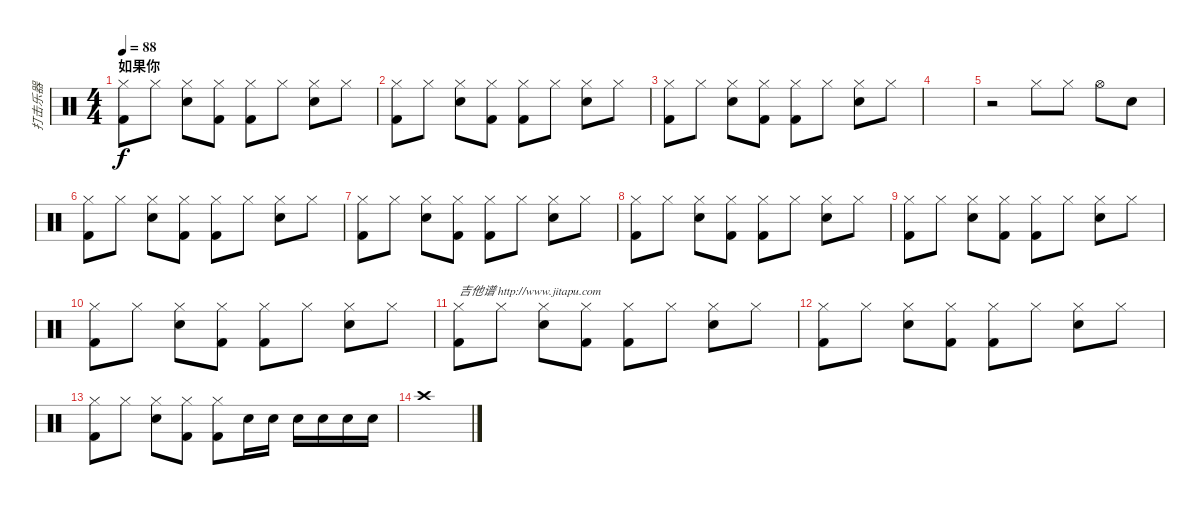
\track ("打击乐器" "打击乐器") {instrument percussion}
\staff {score}
\articulation defaults
\ts (4 4)
\section ("" "如果你")
\tempo 88
\clef neutral
\ks c
("Hi-Hat (closed)" "Kick (hit) 2").8{dy f} "Hi-Hat (closed)".8 ("Hi-Hat (closed)" "Electric Snare (hit)").8 ("Hi-Hat (closed)" "Kick (hit) 2").8 ("Hi-Hat (closed)" "Kick (hit) 2").8 "Hi-Hat (closed)".8 ("Hi-Hat (closed)" "Electric Snare (hit)").8 "Hi-Hat (closed)".8 |
("Hi-Hat (closed)" "Kick (hit) 2").8 "Hi-Hat (closed)".8 ("Hi-Hat (closed)" "Electric Snare (hit)").8 ("Hi-Hat (closed)" "Kick (hit) 2").8 ("Hi-Hat (closed)" "Kick (hit) 2").8 "Hi-Hat (closed)".8 ("Hi-Hat (closed)" "Electric Snare (hit)").8 "Hi-Hat (closed)".8 |
("Hi-Hat (closed)" "Kick (hit) 2").8 "Hi-Hat (closed)".8 ("Hi-Hat (closed)" "Electric Snare (hit)").8 ("Hi-Hat (closed)" "Kick (hit) 2").8 ("Hi-Hat (closed)" "Kick (hit) 2").8 "Hi-Hat (closed)".8 ("Hi-Hat (closed)" "Electric Snare (hit)").8 "Hi-Hat (closed)".8 |
|
r.2 "Hi-Hat (closed)".8 "Hi-Hat (closed)".8 "Hi-Hat (open)".8 "Electric Snare (hit)".8 |
("Hi-Hat (closed)" "Kick (hit) 2").8 "Hi-Hat (closed)".8 ("Hi-Hat (closed)" "Electric Snare (hit)").8 ("Hi-Hat (closed)" "Kick (hit) 2").8 ("Hi-Hat (closed)" "Kick (hit) 2").8 "Hi-Hat (closed)".8 ("Hi-Hat (closed)" "Electric Snare (hit)").8 "Hi-Hat (closed)".8 |
("Hi-Hat (closed)" "Kick (hit) 2").8 "Hi-Hat (closed)".8 ("Hi-Hat (closed)" "Electric Snare (hit)").8 ("Hi-Hat (closed)" "Kick (hit) 2").8 ("Hi-Hat (closed)" "Kick (hit) 2").8 "Hi-Hat (closed)".8 ("Hi-Hat (closed)" "Electric Snare (hit)").8 "Hi-Hat (closed)".8 |
("Hi-Hat (closed)" "Kick (hit) 2").8 "Hi-Hat (closed)".8 ("Hi-Hat (closed)" "Electric Snare (hit)").8 ("Hi-Hat (closed)" "Kick (hit) 2").8 ("Hi-Hat (closed)" "Kick (hit) 2").8 "Hi-Hat (closed)".8 ("Hi-Hat (closed)" "Electric Snare (hit)").8 "Hi-Hat (closed)".8 |
("Hi-Hat (closed)" "Kick (hit) 2").8 "Hi-Hat (closed)".8 ("Hi-Hat (closed)" "Electric Snare (hit)").8 ("Hi-Hat (closed)" "Kick (hit) 2").8 ("Hi-Hat (closed)" "Kick (hit) 2").8 "Hi-Hat (closed)".8 ("Hi-Hat (closed)" "Electric Snare (hit)").8 "Hi-Hat (closed)".8 |
("Hi-Hat (closed)" "Kick (hit) 2").8 "Hi-Hat (closed)".8 ("Hi-Hat (closed)" "Electric Snare (hit)").8 ("Hi-Hat (closed)" "Kick (hit) 2").8 ("Hi-Hat (closed)" "Kick (hit) 2").8 "Hi-Hat (closed)".8 ("Hi-Hat (closed)" "Electric Snare (hit)").8 "Hi-Hat (closed)".8 |
("Hi-Hat (closed)" "Kick (hit) 2").8{txt "吉他谱 http://www.jitapu.com"} "Hi-Hat (closed)".8 ("Hi-Hat (closed)" "Electric Snare (hit)").8 ("Hi-Hat (closed)" "Kick (hit) 2").8 ("Hi-Hat (closed)" "Kick (hit) 2").8 "Hi-Hat (closed)".8 ("Hi-Hat (closed)" "Electric Snare (hit)").8 "Hi-Hat (closed)".8 |
("Hi-Hat (closed)" "Kick (hit) 2").8 "Hi-Hat (closed)".8 ("Hi-Hat (closed)" "Electric Snare (hit)").8 ("Hi-Hat (closed)" "Kick (hit) 2").8 ("Hi-Hat (closed)" "Kick (hit) 2").8 "Hi-Hat (closed)".8 ("Hi-Hat (closed)" "Electric Snare (hit)").8 "Hi-Hat (closed)".8 |
("Hi-Hat (closed)" "Kick (hit) 2").8 "Hi-Hat (closed)".8 ("Hi-Hat (closed)" "Electric Snare (hit)").8 ("Hi-Hat (closed)" "Kick (hit) 2").8 ("Hi-Hat (closed)" "Kick (hit) 2").8 "Electric Snare (hit)".16 "Electric Snare (hit)".16 "Electric Snare (hit)".16 "Electric Snare (hit)".16 "Electric Snare (hit)".16 "Electric Snare (hit)".16 |
"Crash high (hit)".1
